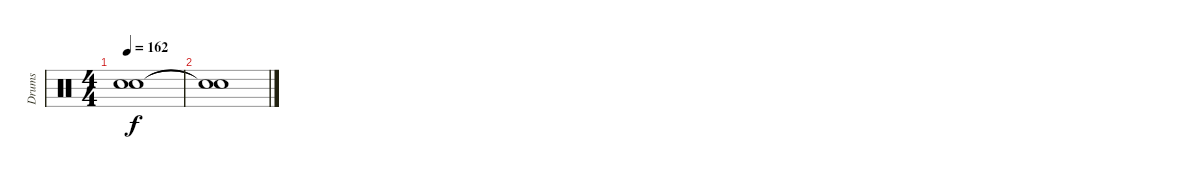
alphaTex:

\track ("Drums" "Drums") {instrument percussion}
\staff {score}
\articulation defaults
\ts (4 4)
\tempo 162
\clef neutral
\ks c
("Snare (hit)"{t} "Snare (hit)"{t}).1{dy f} |
("Snare (hit)"{t} "Snare (hit)"{t}).1
